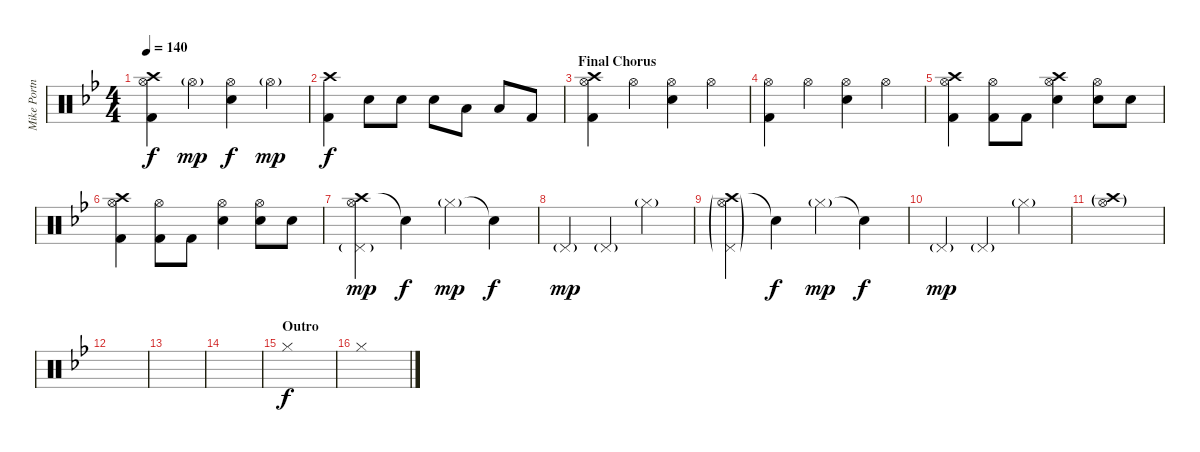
\track ("Mike Portnoy - Drums" "Mike Portn") {instrument percussion}
\staff {score}
\articulation defaults
\ts (4 4)
\tempo 140
\clef neutral
\ks bb
("Crash high (hit)" "Hi-Hat (open)" "Kick (hit) 2").4{dy f} "Hi-Hat (open)"{g}.4{dy mp} ("Hi-Hat (open)" "Snare (hit) 2").4{dy f} "Hi-Hat (open)"{g}.4{dy mp} |
("Crash high (hit)" "Kick (hit) 2").4{dy f} "Snare (hit) 2".8 "Snare (hit) 2".8 "Snare (hit) 2".8 "Low Tom (hit)".8 "Low Floor Tom (hit)".8 "Kick (hit) 2".8 |
\section ("" "Final Chorus")
("Crash high (hit)" "Hi-Hat (open)" "Kick (hit) 2").4 "Hi-Hat (open)".4 ("Hi-Hat (open)" "Snare (hit) 2").4 "Hi-Hat (open)".4 |
("Hi-Hat (open)" "Kick (hit) 2").4 "Hi-Hat (open)".4 ("Hi-Hat (open)" "Snare (hit) 2").4 "Hi-Hat (open)".4 |
("Crash high (hit)" "Hi-Hat (open)" "Kick (hit) 2").4 ("Hi-Hat (open)" "Kick (hit) 2").8 "Kick (hit) 2".8 ("Crash high (hit)" "Hi-Hat (open)" "Snare (hit) 2").4 ("Snare (hit) 2" "Hi-Hat (open)").8 "Snare (hit) 2".8 |
("Crash high (hit)" "Hi-Hat (open)" "Kick (hit) 2").4 ("Hi-Hat (open)" "Kick (hit) 2").8 "Kick (hit) 2".8 ("Hi-Hat (open)" "Snare (hit) 2").4 ("Snare (hit) 2" "Hi-Hat (open)").8 "Snare (hit) 2".8 |
("Crash high (hit)" "Hi-Hat (open)" "Pedal Hi-Hat (hit)"{g}).4{dy mp} "Snare (hit)"{t}.4{dy f} "Hi-Hat (closed)"{g}.4{dy mp} "Snare (hit)"{t}.4{dy f} |
"Pedal Hi-Hat (hit)"{g}.4{dy mp} "Pedal Hi-Hat (hit)"{g}.4 "Hi-Hat (closed)"{g}.2 |
("Crash high (hit)"{g} "Hi-Hat (open)"{g} "Pedal Hi-Hat (hit)"{g}).4 "Snare (hit)"{t}.4{dy f} "Hi-Hat (closed)"{g}.4{dy mp} "Snare (hit)"{t}.4{dy f} |
"Pedal Hi-Hat (hit)"{g}.4{dy mp} "Pedal Hi-Hat (hit)"{g}.4 "Hi-Hat (closed)"{g}.2 |
("Crash high (hit)"{g} "Hi-Hat (open)"{g}).1 |
|
|
|
\section ("" "Outro")
"Hi-Hat (closed)".1{dy f volume 8} |
"Hi-Hat (closed)".1
